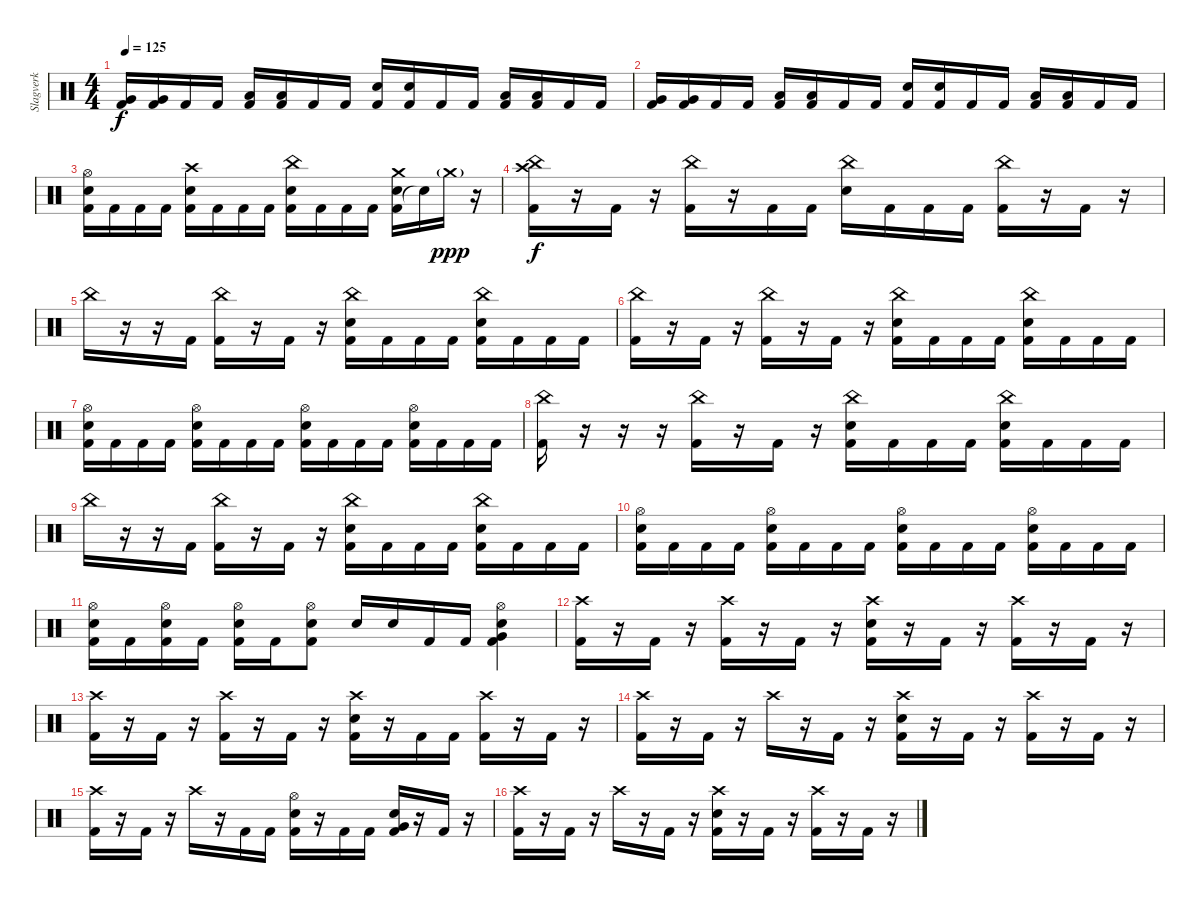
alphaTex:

\track ("Slagverk" "Slagverk") {instrument percussion}
\staff {score}
\articulation defaults
\ts (4 4)
\tempo 125
\clef neutral
\ks c
("Kick (hit) 2" "Very Low Tom (hit)").16{dy f} ("Kick (hit) 2" "Very Low Tom (hit)").16 "Kick (hit) 2".16 "Kick (hit) 2".16 ("Kick (hit) 2" "Low Tom (hit)").16 ("Kick (hit) 2" "Low Tom (hit)").16 "Kick (hit) 2".16 "Kick (hit) 2".16 ("Kick (hit) 2" "Snare (hit) 2").16 ("Kick (hit) 2" "Snare (hit) 2").16 "Kick (hit) 2".16 "Kick (hit) 2".16 ("Kick (hit) 2" "Low Tom (hit)").16 ("Kick (hit) 2" "Low Tom (hit)").16 "Kick (hit) 2".16 "Kick (hit) 2".16 |
("Kick (hit) 2" "Very Low Tom (hit)").16 ("Kick (hit) 2" "Very Low Tom (hit)").16 "Kick (hit) 2".16 "Kick (hit) 2".16 ("Kick (hit) 2" "Low Tom (hit)").16 ("Kick (hit) 2" "Low Tom (hit)").16 "Kick (hit) 2".16 "Kick (hit) 2".16 ("Kick (hit) 2" "Snare (hit) 2").16 ("Kick (hit) 2" "Snare (hit) 2").16 "Kick (hit) 2".16 "Kick (hit) 2".16 ("Kick (hit) 2" "Low Tom (hit)").16 ("Kick (hit) 2" "Low Tom (hit)").16 "Kick (hit) 2".16 "Kick (hit) 2".16 |
("Kick (hit) 2" "Snare (hit) 2" "Hi-Hat (open)").16 "Kick (hit) 2".16 "Kick (hit) 2".16 "Kick (hit) 2".16 ("Kick (hit) 2" "Snare (hit) 2" "Crash high (hit)").16 "Kick (hit) 2".16 "Kick (hit) 2".16 "Kick (hit) 2".16 ("Kick (hit) 2" "Snare (hit) 2" "China (hit)").16 "Kick (hit) 2".16 "Kick (hit) 2".16 "Kick (hit) 2".16 ("Kick (hit) 2" "Crash medium (hit)" "Snare (hit) 2").16 "Snare (hit)"{t}.16 "Crash medium (hit)"{g}.16{dy ppp} r.16 |
("Kick (hit) 2" "China (hit)" "Crash high (hit)").16{dy f} r.16 "Kick (hit) 2".16 r.16 ("Kick (hit) 2" "China (hit)").16 r.16 "Kick (hit) 2".16 "Kick (hit) 2".16 ("Snare (hit) 2" "China (hit)").16 "Kick (hit) 2".16 "Kick (hit) 2".16 "Kick (hit) 2".16 ("Kick (hit) 2" "China (hit)").16 r.16 "Kick (hit) 2".16 r.16 |
"China (hit)".16 r.16 r.16 "Kick (hit) 2".16 ("Kick (hit) 2" "China (hit)").16 r.16 "Kick (hit) 2".16 r.16 ("Kick (hit) 2" "Snare (hit) 2" "China (hit)").16 "Kick (hit) 2".16 "Kick (hit) 2".16 "Kick (hit) 2".16 ("Kick (hit) 2" "Snare (hit) 2" "China (hit)").16 "Kick (hit) 2".16 "Kick (hit) 2".16 "Kick (hit) 2".16 |
("Kick (hit) 2" "China (hit)").16 r.16 "Kick (hit) 2".16 r.16 ("Kick (hit) 2" "China (hit)").16 r.16 "Kick (hit) 2".16 r.16 ("Kick (hit) 2" "Snare (hit) 2" "China (hit)").16 "Kick (hit) 2".16 "Kick (hit) 2".16 "Kick (hit) 2".16 ("Kick (hit) 2" "Snare (hit) 2" "China (hit)").16 "Kick (hit) 2".16 "Kick (hit) 2".16 "Kick (hit) 2".16 |
("Kick (hit) 2" "Hi-Hat (open)" "Snare (hit) 2").16 "Kick (hit) 2".16 "Kick (hit) 2".16 "Kick (hit) 2".16 ("Kick (hit) 2" "Hi-Hat (open)" "Snare (hit) 2").16 "Kick (hit) 2".16 "Kick (hit) 2".16 "Kick (hit) 2".16 ("Kick (hit) 2" "Hi-Hat (open)" "Snare (hit) 2").16 "Kick (hit) 2".16 "Kick (hit) 2".16 "Kick (hit) 2".16 ("Kick (hit) 2" "Hi-Hat (open)" "Snare (hit) 2").16 "Kick (hit) 2".16 "Kick (hit) 2".16 "Kick (hit) 2".16 |
("Kick (hit) 2" "China (hit)").16 r.16 r.16 r.16 ("Kick (hit) 2" "China (hit)").16 r.16 "Kick (hit) 2".16 r.16 ("Kick (hit) 2" "Snare (hit) 2" "China (hit)").16 "Kick (hit) 2".16 "Kick (hit) 2".16 "Kick (hit) 2".16 ("Kick (hit) 2" "Snare (hit) 2" "China (hit)").16 "Kick (hit) 2".16 "Kick (hit) 2".16 "Kick (hit) 2".16 |
"China (hit)".16 r.16 r.16 "Kick (hit) 2".16 ("Kick (hit) 2" "China (hit)").16 r.16 "Kick (hit) 2".16 r.16 ("Kick (hit) 2" "Snare (hit) 2" "China (hit)").16 "Kick (hit) 2".16 "Kick (hit) 2".16 "Kick (hit) 2".16 ("Kick (hit) 2" "Snare (hit) 2" "China (hit)").16 "Kick (hit) 2".16 "Kick (hit) 2".16 "Kick (hit) 2".16 |
("Kick (hit) 2" "Hi-Hat (open)" "Snare (hit) 2").16 "Kick (hit) 2".16 "Kick (hit) 2".16 "Kick (hit) 2".16 ("Kick (hit) 2" "Hi-Hat (open)" "Snare (hit) 2").16 "Kick (hit) 2".16 "Kick (hit) 2".16 "Kick (hit) 2".16 ("Kick (hit) 2" "Hi-Hat (open)" "Snare (hit) 2").16 "Kick (hit) 2".16 "Kick (hit) 2".16 "Kick (hit) 2".16 ("Kick (hit) 2" "Hi-Hat (open)" "Snare (hit) 2").16 "Kick (hit) 2".16 "Kick (hit) 2".16 "Kick (hit) 2".16 |
("Kick (hit) 2" "Hi-Hat (open)" "Snare (hit) 2").16 "Kick (hit) 2".16 ("Kick (hit) 2" "Hi-Hat (open)" "Snare (hit) 2").16 "Kick (hit) 2".16 ("Kick (hit) 2" "Hi-Hat (open)" "Snare (hit) 2").16 "Kick (hit) 2".16 ("Kick (hit) 2" "Hi-Hat (open)" "Snare (hit) 2").8 "Snare (hit) 2".16 "Snare (hit) 2".16 "Kick (hit) 2".16 "Kick (hit) 2".16 ("Kick (hit) 2" "Very Low Tom (hit)" "Snare (hit) 2" "Hi-Hat (open)").4 |
("Kick (hit) 2" "Crash high (hit)").16 r.16 "Kick (hit) 2".16 r.16 ("Kick (hit) 2" "Crash high (hit)").16 r.16 "Kick (hit) 2".16 r.16 ("Kick (hit) 2" "Snare (hit) 2" "Crash high (hit)").16 r.16 "Kick (hit) 2".16 r.16 ("Kick (hit) 2" "Crash high (hit)").16 r.16 "Kick (hit) 2".16 r.16 |
("Kick (hit) 2" "Crash high (hit)").16 r.16 "Kick (hit) 2".16 r.16 ("Kick (hit) 2" "Crash high (hit)").16 r.16 "Kick (hit) 2".16 r.16 ("Kick (hit) 2" "Snare (hit) 2" "Crash high (hit)").16 r.16 "Kick (hit) 2".16 "Kick (hit) 2".16 ("Kick (hit) 2" "Crash high (hit)").16 r.16 "Kick (hit) 2".16 r.16 |
("Kick (hit) 2" "Crash high (hit)").16 r.16 "Kick (hit) 2".16 r.16 "Crash high (hit)".16 r.16 "Kick (hit) 2".16 r.16 ("Kick (hit) 2" "Snare (hit) 2" "Crash high (hit)").16 r.16 "Kick (hit) 2".16 r.16 ("Kick (hit) 2" "Crash high (hit)").16 r.16 "Kick (hit) 2".16 r.16 |
("Kick (hit) 2" "Crash high (hit)").16 r.16 "Kick (hit) 2".16 r.16 "Crash high (hit)".16 r.16 "Kick (hit) 2".16 "Kick (hit) 2".16 ("Kick (hit) 2" "Snare (hit) 2" "Hi-Hat (open)").16 r.16 "Kick (hit) 2".16 "Kick (hit) 2".16 ("Kick (hit) 2" "Snare (hit) 2" "Very Low Tom (hit)").16 r.16 "Kick (hit) 2".16 r.16 |
("Kick (hit) 2" "Crash high (hit)").16 r.16 "Kick (hit) 2".16 r.16 "Crash high (hit)".16 r.16 "Kick (hit) 2".16 r.16 ("Kick (hit) 2" "Snare (hit) 2" "Crash high (hit)").16 r.16 "Kick (hit) 2".16 r.16 ("Kick (hit) 2" "Crash high (hit)").16 r.16 "Kick (hit) 2".16 r.16
